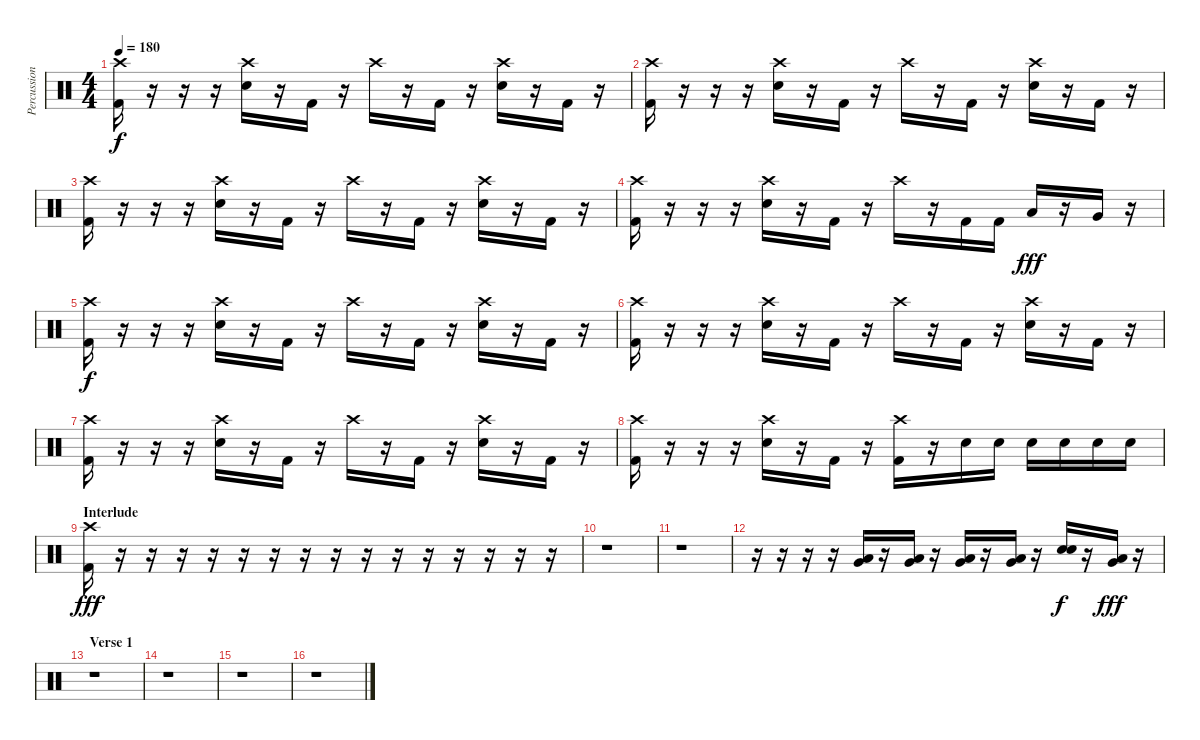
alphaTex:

\track ("Percussion" "Percussion") {instrument percussion}
\staff {score}
\articulation defaults
\ts (4 4)
\tempo 180
\clef neutral
\ks c
("Crash high (hit)" "Kick (hit) 2").16{dy f} r.16 r.16 r.16 ("Crash high (hit)" "Electric Snare (hit)").16 r.16 "Kick (hit) 2".16 r.16 "Crash high (hit)".16 r.16 "Kick (hit) 2".16 r.16 ("Crash high (hit)" "Electric Snare (hit)").16 r.16 "Kick (hit) 2".16 r.16 |
("Crash high (hit)" "Kick (hit) 2").16 r.16 r.16 r.16 ("Crash high (hit)" "Electric Snare (hit)").16 r.16 "Kick (hit) 2".16 r.16 "Crash high (hit)".16 r.16 "Kick (hit) 2".16 r.16 ("Crash high (hit)" "Electric Snare (hit)").16 r.16 "Kick (hit) 2".16 r.16 |
("Crash high (hit)" "Kick (hit) 2").16 r.16 r.16 r.16 ("Crash high (hit)" "Electric Snare (hit)").16 r.16 "Kick (hit) 2".16 r.16 "Crash high (hit)".16 r.16 "Kick (hit) 2".16 r.16 ("Crash high (hit)" "Electric Snare (hit)").16 r.16 "Kick (hit) 2".16 r.16 |
("Crash high (hit)" "Kick (hit) 2").16 r.16 r.16 r.16 ("Crash high (hit)" "Electric Snare (hit)").16 r.16 "Kick (hit) 2".16 r.16 "Crash high (hit)".16 r.16 "Kick (hit) 2".16 "Kick (hit) 2".16 "Low Tom (hit)".16{dy fff} r.16 "Very Low Tom (hit)".16 r.16 |
("Crash high (hit)" "Kick (hit) 2").16{dy f} r.16 r.16 r.16 ("Crash high (hit)" "Electric Snare (hit)").16 r.16 "Kick (hit) 2".16 r.16 "Crash high (hit)".16 r.16 "Kick (hit) 2".16 r.16 ("Crash high (hit)" "Electric Snare (hit)").16 r.16 "Kick (hit) 2".16 r.16 |
("Crash high (hit)" "Kick (hit) 2").16 r.16 r.16 r.16 ("Crash high (hit)" "Electric Snare (hit)").16 r.16 "Kick (hit) 2".16 r.16 "Crash high (hit)".16 r.16 "Kick (hit) 2".16 r.16 ("Crash high (hit)" "Electric Snare (hit)").16 r.16 "Kick (hit) 2".16 r.16 |
("Crash high (hit)" "Kick (hit) 2").16 r.16 r.16 r.16 ("Crash high (hit)" "Electric Snare (hit)").16 r.16 "Kick (hit) 2".16 r.16 "Crash high (hit)".16 r.16 "Kick (hit) 2".16 r.16 ("Crash high (hit)" "Electric Snare (hit)").16 r.16 "Kick (hit) 2".16 r.16 |
("Crash high (hit)" "Kick (hit) 2").16 r.16 r.16 r.16 ("Crash high (hit)" "Electric Snare (hit)").16 r.16 "Kick (hit) 2".16 r.16 ("Crash high (hit)" "Kick (hit) 2").16 r.16 "Electric Snare (hit)".16 "Electric Snare (hit)".16 "Electric Snare (hit)".16 "Electric Snare (hit)".16 "Electric Snare (hit)".16 "Electric Snare (hit)".16 |
\section ("" "Interlude")
("Crash high (hit)" "Kick (hit) 2").16{dy fff} r.16 r.16 r.16 r.16 r.16 r.16 r.16 r.16 r.16 r.16 r.16 r.16 r.16 r.16 r.16 |
r.1 |
r.1 |
r.16 r.16 r.16 r.16 ("Very Low Tom (hit)" "Low Floor Tom (hit)").16 r.16 ("Very Low Tom (hit)" "Low Floor Tom (hit)").16 r.16 ("Very Low Tom (hit)" "Low Floor Tom (hit)").16 r.16 ("Very Low Tom (hit)" "Low Floor Tom (hit)").16 r.16 ("Electric Snare (hit)" "Electric Snare (hit)").16{dy f} r.16 ("Very Low Tom (hit)" "Low Floor Tom (hit)").16{dy fff} r.16 |
\section ("" "Verse 1")
r.1 |
r.1 |
r.1 |
r.1
